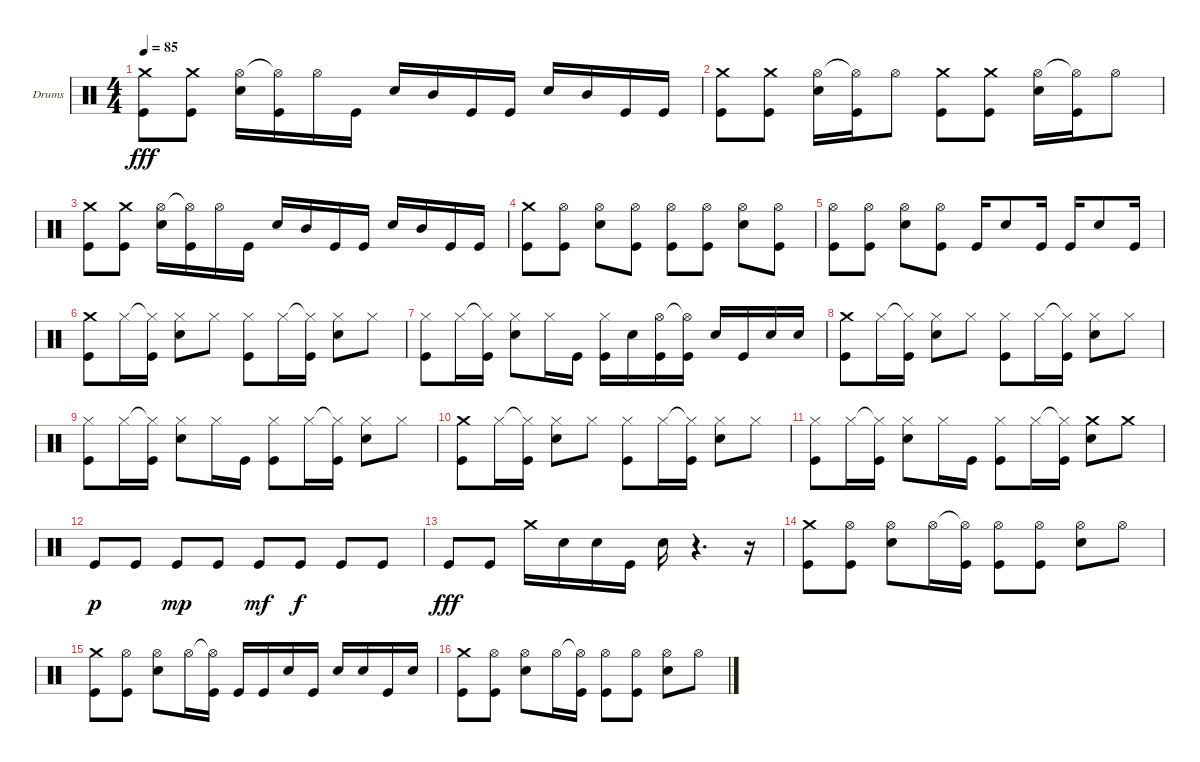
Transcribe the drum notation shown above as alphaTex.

\defaultSystemsLayout 4
\bracketExtendMode groupsimilarinstruments
\firstSystemTrackNameOrientation horizontal
\otherSystemsTrackNameOrientation horizontal
\track ("Drumkit" "Drums") {instrument percussion}
\staff {score}
\articulation defaults
\ts (4 4)
\tempo 85
\clef neutral
\scale
0.333333
\ks c
("Crash medium (hit)" "Kick (hit)").8{dy fff} ("Crash medium (hit)" "Kick (hit)").8 ("Hi-Hat (open)" "Snare (hit) 2").16 ("Hi-Hat (open)"{t} "Kick (hit)").16 "Hi-Hat (open)".16 "Kick (hit)".16 "Snare (hit) 2".16 "Mid Tom (hit)".16 "Kick (hit)".16 "Kick (hit)".16 "Snare (hit) 2".16 "Mid Tom (hit)".16 "Kick (hit)".16 "Kick (hit)".16 |
\scale
0.333333 ("Crash medium (hit)" "Kick (hit)").8 ("Crash medium (hit)" "Kick (hit)").8 ("Hi-Hat (open)" "Snare (hit) 2").16 ("Hi-Hat (open)"{t} "Kick (hit)").16 "Hi-Hat (open)".8 ("Crash medium (hit)" "Kick (hit)").8 ("Crash medium (hit)" "Kick (hit)").8 ("Hi-Hat (open)" "Snare (hit) 2").16 ("Hi-Hat (open)"{t} "Kick (hit)").16 "Hi-Hat (open)".8 |
\scale
0.333333 ("Crash medium (hit)" "Kick (hit)").8 ("Crash medium (hit)" "Kick (hit)").8 ("Hi-Hat (open)" "Snare (hit) 2").16 ("Hi-Hat (open)"{t} "Kick (hit)").16 "Hi-Hat (open)".16 "Kick (hit)".16 "Snare (hit) 2".16 "Mid Tom (hit)".16 "Kick (hit)".16 "Kick (hit)".16 "Snare (hit) 2".16 "Mid Tom (hit)".16 "Kick (hit)".16 "Kick (hit)".16 |
\scale
0.333333 ("Crash medium (hit)" "Kick (hit)").8 ("Hi-Hat (open)" "Kick (hit)").8 ("Hi-Hat (open)" "Snare (hit) 2").8 ("Hi-Hat (open)" "Kick (hit)").8 ("Hi-Hat (open)" "Kick (hit)").8 ("Hi-Hat (open)" "Kick (hit)").8 ("Hi-Hat (open)" "Snare (hit) 2").8 ("Hi-Hat (open)" "Kick (hit)").8 |
\scale
0.333333 ("Hi-Hat (open)" "Kick (hit)").8 ("Hi-Hat (open)" "Kick (hit)").8 ("Hi-Hat (open)" "Snare (hit) 2").8 ("Hi-Hat (open)" "Kick (hit)").8 "Kick (hit)".16 "Snare (hit) 2".8 "Kick (hit)".16 "Kick (hit)".16 "Snare (hit) 2".8 "Kick (hit)".16 |
\scale
0.333333 ("Crash medium (hit)" "Kick (hit)").8 "Hi-Hat (closed)".16 ("Hi-Hat (closed)"{t} "Kick (hit)").16 ("Hi-Hat (closed)" "Snare (hit) 2").8 "Hi-Hat (closed)".8 ("Hi-Hat (closed)" "Kick (hit)").8 "Hi-Hat (closed)".16 ("Hi-Hat (closed)"{t} "Kick (hit)").16 ("Hi-Hat (closed)" "Snare (hit) 2").8 "Hi-Hat (closed)".8 |
\scale
0.333333 ("Hi-Hat (closed)" "Kick (hit)").8 "Hi-Hat (closed)".16 ("Hi-Hat (closed)"{t} "Kick (hit)").16 ("Hi-Hat (closed)" "Snare (hit) 2").8 "Hi-Hat (closed)".16 "Kick (hit)".16 ("Hi-Hat (closed)" "Kick (hit)").16 "Snare (hit) 2".16 ("Hi-Hat (open)" "Kick (hit)").16 ("Hi-Hat (open)"{t} "Kick (hit)").16 "Snare (hit) 2".16 "Kick (hit)".16 "Snare (hit) 2".16 "Snare (hit) 2".16 |
\scale
0.333333 ("Crash medium (hit)" "Kick (hit)").8 "Hi-Hat (closed)".16 ("Hi-Hat (closed)"{t} "Kick (hit)").16 ("Hi-Hat (closed)" "Snare (hit) 2").8 "Hi-Hat (closed)".8 ("Hi-Hat (closed)" "Kick (hit)").8 "Hi-Hat (closed)".16 ("Hi-Hat (closed)"{t} "Kick (hit)").16 ("Hi-Hat (closed)" "Snare (hit) 2").8 "Hi-Hat (closed)".8 |
\scale
0.333333 ("Hi-Hat (closed)" "Kick (hit)").8 "Hi-Hat (closed)".16 ("Hi-Hat (closed)"{t} "Kick (hit)").16 ("Hi-Hat (closed)" "Snare (hit) 2").8 "Hi-Hat (closed)".16 "Kick (hit)".16 ("Hi-Hat (closed)" "Kick (hit)").8 "Hi-Hat (closed)".16 ("Hi-Hat (closed)"{t} "Kick (hit)").16 ("Hi-Hat (closed)" "Snare (hit) 2").8 "Hi-Hat (closed)".8 |
\scale
0.333333 ("Crash medium (hit)" "Kick (hit)").8 "Hi-Hat (closed)".16 ("Hi-Hat (closed)"{t} "Kick (hit)").16 ("Hi-Hat (closed)" "Snare (hit) 2").8 "Hi-Hat (closed)".8 ("Hi-Hat (closed)" "Kick (hit)").8 "Hi-Hat (closed)".16 ("Hi-Hat (closed)"{t} "Kick (hit)").16 ("Hi-Hat (closed)" "Snare (hit) 2").8 "Hi-Hat (closed)".8 |
\scale
0.333333 ("Hi-Hat (closed)" "Kick (hit)").8 "Hi-Hat (closed)".16 ("Hi-Hat (closed)"{t} "Kick (hit)").16 ("Hi-Hat (closed)" "Snare (hit) 2").8 "Hi-Hat (closed)".16 "Kick (hit)".16 ("Hi-Hat (closed)" "Kick (hit)").8 "Hi-Hat (closed)".16 ("Hi-Hat (closed)"{t} "Kick (hit)").16 ("Crash medium (hit)" "Snare (hit) 2").8 "Crash medium (hit)".8 |
\scale
0.333333 "Kick (hit)".8{dy p} "Kick (hit)".8 "Kick (hit)".8{dy mp} "Kick (hit)".8 "Kick (hit)".8{dy mf} "Kick (hit)".8{dy f} "Kick (hit)".8 "Kick (hit)".8 |
\scale
0.333333 "Kick (hit)".8{dy fff} "Kick (hit)".8 "Crash medium (hit)".16 "Snare (hit) 2".16 "Snare (hit) 2".16 "Kick (hit)".16 "Snare (hit) 2".16 r.4{d} r.16 |
\scale
0.333333 ("Crash medium (hit)" "Kick (hit)").8 ("Hi-Hat (open)" "Kick (hit)").8 ("Hi-Hat (open)" "Snare (hit) 2").8 "Hi-Hat (open)".16 ("Hi-Hat (open)"{t} "Kick (hit)").16 ("Hi-Hat (open)" "Kick (hit)").8 ("Hi-Hat (open)" "Kick (hit)").8 ("Hi-Hat (open)" "Snare (hit) 2").8 "Hi-Hat (open)".8 |
\scale
0.333333 ("Crash medium (hit)" "Kick (hit)").8 ("Hi-Hat (open)" "Kick (hit)").8 ("Hi-Hat (open)" "Snare (hit) 2").8 "Hi-Hat (open)".16 ("Hi-Hat (open)"{t} "Kick (hit)").16 "Kick (hit)".16 "Kick (hit)".16 "Snare (hit) 2".16 "Kick (hit)".16 "Snare (hit) 2".16 "Snare (hit) 2".16 "Kick (hit)".16 "Snare (hit) 2".16 |
\scale
0.333333 ("Crash medium (hit)" "Kick (hit)").8 ("Hi-Hat (open)" "Kick (hit)").8 ("Hi-Hat (open)" "Snare (hit) 2").8 "Hi-Hat (open)".16 ("Hi-Hat (open)"{t} "Kick (hit)").16 ("Hi-Hat (open)" "Kick (hit)").8 ("Hi-Hat (open)" "Kick (hit)").8 ("Hi-Hat (open)" "Snare (hit) 2").8 "Hi-Hat (open)".8
